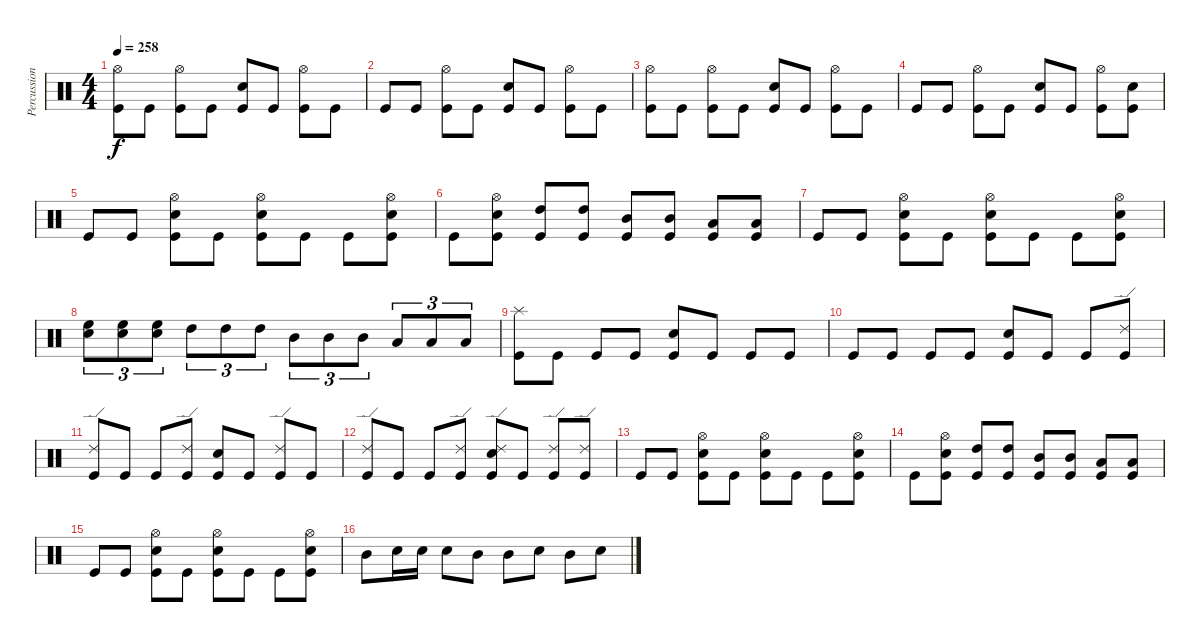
\track ("Percussion" "Percussion") {instrument percussion}
\staff {score}
\articulation defaults
\ts (4 4)
\tempo 258
\clef neutral
\ks c
("Hi-Hat (open)" "Kick (hit)").8{dy f} "Kick (hit)".8 ("Hi-Hat (open)" "Kick (hit)").8 "Kick (hit)".8 ("Snare (hit) 2" "Kick (hit)").8 "Kick (hit)".8 ("Hi-Hat (open)" "Kick (hit)").8 "Kick (hit)".8 |
"Kick (hit)".8 "Kick (hit)".8 ("Hi-Hat (open)" "Kick (hit)").8 "Kick (hit)".8 ("Snare (hit) 2" "Kick (hit)").8 "Kick (hit)".8 ("Hi-Hat (open)" "Kick (hit)").8 "Kick (hit)".8 |
("Hi-Hat (open)" "Kick (hit)").8 "Kick (hit)".8 ("Hi-Hat (open)" "Kick (hit)").8 "Kick (hit)".8 ("Snare (hit) 2" "Kick (hit)").8 "Kick (hit)".8 ("Hi-Hat (open)" "Kick (hit)").8 "Kick (hit)".8 |
"Kick (hit)".8 "Kick (hit)".8 ("Hi-Hat (open)" "Kick (hit)").8 "Kick (hit)".8 ("Snare (hit) 2" "Kick (hit)").8 "Kick (hit)".8 ("Hi-Hat (open)" "Kick (hit)").8 ("Snare (hit) 2" "Kick (hit)").8 |
"Kick (hit)".8 "Kick (hit)".8 ("Snare (hit) 2" "Hi-Hat (open)" "Kick (hit)").8 "Kick (hit)".8 ("Snare (hit) 2" "Hi-Hat (open)" "Kick (hit)").8 "Kick (hit)".8 "Kick (hit)".8 ("Snare (hit) 2" "Hi-Hat (open)" "Kick (hit)").8 |
"Kick (hit)".8 ("Snare (hit) 2" "Hi-Hat (open)" "Kick (hit)").8 ("High Tom (hit)" "Kick (hit)").8 ("High Tom (hit)" "Kick (hit)").8 ("Mid Tom (hit)" "Kick (hit)").8 ("Mid Tom (hit)" "Kick (hit)").8 ("Low Tom (hit)" "Kick (hit)").8 ("Low Tom (hit)" "Kick (hit)").8 |
"Kick (hit)".8 "Kick (hit)".8 ("Snare (hit) 2" "Hi-Hat (open)" "Kick (hit)").8 "Kick (hit)".8 ("Snare (hit) 2" "Hi-Hat (open)" "Kick (hit)").8 "Kick (hit)".8 "Kick (hit)".8 ("Snare (hit) 2" "Hi-Hat (open)" "Kick (hit)").8 |
("High Floor Tom (hit)" "Snare (hit) 2").8{tu (3 2)} ("High Floor Tom (hit)" "Snare (hit) 2").8{tu (3 2)} ("High Floor Tom (hit)" "Snare (hit) 2").8{tu (3 2)} "High Tom (hit)".8{tu (3 2)} "High Tom (hit)".8{tu (3 2)} "High Tom (hit)".8{tu (3 2)} "Mid Tom (hit)".8{tu (3 2)} "Mid Tom (hit)".8{tu (3 2)} "Mid Tom (hit)".8{tu (3 2)} "Low Tom (hit)".8{tu (3 2)} "Low Tom (hit)".8{tu (3 2)} "Low Tom (hit)".8{tu (3 2)} |
("Splash (hit)" "Kick (hit)").8 "Kick (hit)".8 "Kick (hit)".8 "Kick (hit)".8 ("Snare (hit) 2" "Kick (hit)").8 "Kick (hit)".8 "Kick (hit)".8 "Kick (hit)".8 |
"Kick (hit)".8 "Kick (hit)".8 "Kick (hit)".8 "Kick (hit)".8 ("Snare (hit) 2" "Kick (hit)").8 "Kick (hit)".8 "Kick (hit)".8 ("Ride (edge) 2" "Kick (hit)").8 |
("Ride (edge) 2" "Kick (hit)").8 "Kick (hit)".8 "Kick (hit)".8 ("Ride (edge) 2" "Kick (hit)").8 ("Snare (hit) 2" "Kick (hit)").8 "Kick (hit)".8 ("Ride (edge) 2" "Kick (hit)").8 "Kick (hit)".8 |
("Ride (edge) 2" "Kick (hit)").8 "Kick (hit)".8 "Kick (hit)".8 ("Ride (edge) 2" "Kick (hit)").8 ("Snare (hit) 2" "Ride (edge) 2" "Kick (hit)").8 "Kick (hit)".8 ("Ride (edge) 2" "Kick (hit)").8 ("Ride (edge) 2" "Kick (hit)").8 |
"Kick (hit)".8 "Kick (hit)".8 ("Snare (hit) 2" "Hi-Hat (open)" "Kick (hit)").8 "Kick (hit)".8 ("Snare (hit) 2" "Hi-Hat (open)" "Kick (hit)").8 "Kick (hit)".8 "Kick (hit)".8 ("Snare (hit) 2" "Hi-Hat (open)" "Kick (hit)").8 |
"Kick (hit)".8 ("Snare (hit) 2" "Hi-Hat (open)" "Kick (hit)").8 ("High Tom (hit)" "Kick (hit)").8 ("High Tom (hit)" "Kick (hit)").8 ("Mid Tom (hit)" "Kick (hit)").8 ("Mid Tom (hit)" "Kick (hit)").8 ("Low Tom (hit)" "Kick (hit)").8 ("Low Tom (hit)" "Kick (hit)").8 |
"Kick (hit)".8 "Kick (hit)".8 ("Snare (hit) 2" "Hi-Hat (open)" "Kick (hit)").8 "Kick (hit)".8 ("Snare (hit) 2" "Hi-Hat (open)" "Kick (hit)").8 "Kick (hit)".8 "Kick (hit)".8 ("Snare (hit) 2" "Hi-Hat (open)" "Kick (hit)").8 |
"Mid Tom (hit)".8 "Snare (hit) 2".16 "Snare (hit) 2".16 "Snare (hit) 2".8 "Mid Tom (hit)".8 "Mid Tom (hit)".8 "Snare (hit) 2".8 "Mid Tom (hit)".8 "Snare (hit) 2".8
